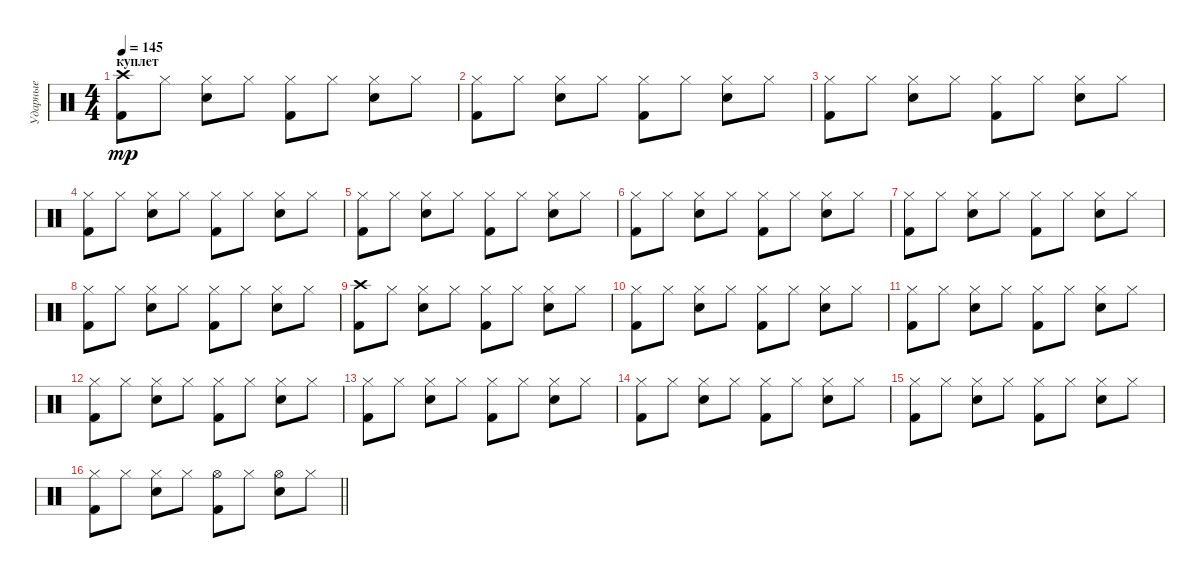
\track ("Ударные" "Ударные") {instrument percussion}
\staff {score}
\articulation defaults
\ts (4 4)
\section ("" "куплет")
\tempo 145
\clef neutral
\ks c
("Kick (hit) 2" "Crash high (hit)").8{dy mp} "Hi-Hat (closed)".8 ("Snare (hit) 2" "Hi-Hat (closed)").8 "Hi-Hat (closed)".8 ("Kick (hit) 2" "Hi-Hat (closed)").8 "Hi-Hat (closed)".8 ("Snare (hit) 2" "Hi-Hat (closed)").8 "Hi-Hat (closed)".8 |
("Kick (hit) 2" "Hi-Hat (closed)").8 "Hi-Hat (closed)".8 ("Snare (hit) 2" "Hi-Hat (closed)").8 "Hi-Hat (closed)".8 ("Kick (hit) 2" "Hi-Hat (closed)").8 "Hi-Hat (closed)".8 ("Snare (hit) 2" "Hi-Hat (closed)").8 "Hi-Hat (closed)".8 |
("Kick (hit) 2" "Hi-Hat (closed)").8 "Hi-Hat (closed)".8 ("Snare (hit) 2" "Hi-Hat (closed)").8 "Hi-Hat (closed)".8 ("Kick (hit) 2" "Hi-Hat (closed)").8 "Hi-Hat (closed)".8 ("Snare (hit) 2" "Hi-Hat (closed)").8 "Hi-Hat (closed)".8 |
("Kick (hit) 2" "Hi-Hat (closed)").8 "Hi-Hat (closed)".8 ("Snare (hit) 2" "Hi-Hat (closed)").8 "Hi-Hat (closed)".8 ("Kick (hit) 2" "Hi-Hat (closed)").8 "Hi-Hat (closed)".8 ("Snare (hit) 2" "Hi-Hat (closed)").8 "Hi-Hat (closed)".8 |
("Kick (hit) 2" "Hi-Hat (closed)").8 "Hi-Hat (closed)".8 ("Snare (hit) 2" "Hi-Hat (closed)").8 "Hi-Hat (closed)".8 ("Kick (hit) 2" "Hi-Hat (closed)").8 "Hi-Hat (closed)".8 ("Snare (hit) 2" "Hi-Hat (closed)").8 "Hi-Hat (closed)".8 |
("Kick (hit) 2" "Hi-Hat (closed)").8 "Hi-Hat (closed)".8 ("Snare (hit) 2" "Hi-Hat (closed)").8 "Hi-Hat (closed)".8 ("Kick (hit) 2" "Hi-Hat (closed)").8 "Hi-Hat (closed)".8 ("Snare (hit) 2" "Hi-Hat (closed)").8 "Hi-Hat (closed)".8 |
("Kick (hit) 2" "Hi-Hat (closed)").8 "Hi-Hat (closed)".8 ("Snare (hit) 2" "Hi-Hat (closed)").8 "Hi-Hat (closed)".8 ("Kick (hit) 2" "Hi-Hat (closed)").8 "Hi-Hat (closed)".8 ("Snare (hit) 2" "Hi-Hat (closed)").8 "Hi-Hat (closed)".8 |
("Kick (hit) 2" "Hi-Hat (closed)").8 "Hi-Hat (closed)".8 ("Snare (hit) 2" "Hi-Hat (closed)").8 "Hi-Hat (closed)".8 ("Kick (hit) 2" "Hi-Hat (closed)").8 "Hi-Hat (closed)".8 ("Snare (hit) 2" "Hi-Hat (closed)").8 "Hi-Hat (closed)".8 |
("Kick (hit) 2" "Crash high (hit)").8 "Hi-Hat (closed)".8 ("Snare (hit) 2" "Hi-Hat (closed)").8 "Hi-Hat (closed)".8 ("Kick (hit) 2" "Hi-Hat (closed)").8 "Hi-Hat (closed)".8 ("Snare (hit) 2" "Hi-Hat (closed)").8 "Hi-Hat (closed)".8 |
("Kick (hit) 2" "Hi-Hat (closed)").8 "Hi-Hat (closed)".8 ("Snare (hit) 2" "Hi-Hat (closed)").8 "Hi-Hat (closed)".8 ("Kick (hit) 2" "Hi-Hat (closed)").8 "Hi-Hat (closed)".8 ("Snare (hit) 2" "Hi-Hat (closed)").8 "Hi-Hat (closed)".8 |
("Kick (hit) 2" "Hi-Hat (closed)").8 "Hi-Hat (closed)".8 ("Snare (hit) 2" "Hi-Hat (closed)").8 "Hi-Hat (closed)".8 ("Kick (hit) 2" "Hi-Hat (closed)").8 "Hi-Hat (closed)".8 ("Snare (hit) 2" "Hi-Hat (closed)").8 "Hi-Hat (closed)".8 |
("Kick (hit) 2" "Hi-Hat (closed)").8 "Hi-Hat (closed)".8 ("Snare (hit) 2" "Hi-Hat (closed)").8 "Hi-Hat (closed)".8 ("Kick (hit) 2" "Hi-Hat (closed)").8 "Hi-Hat (closed)".8 ("Snare (hit) 2" "Hi-Hat (closed)").8 "Hi-Hat (closed)".8 |
("Kick (hit) 2" "Hi-Hat (closed)").8 "Hi-Hat (closed)".8 ("Snare (hit) 2" "Hi-Hat (closed)").8 "Hi-Hat (closed)".8 ("Kick (hit) 2" "Hi-Hat (closed)").8 "Hi-Hat (closed)".8 ("Snare (hit) 2" "Hi-Hat (closed)").8 "Hi-Hat (closed)".8 |
("Kick (hit) 2" "Hi-Hat (closed)").8 "Hi-Hat (closed)".8 ("Snare (hit) 2" "Hi-Hat (closed)").8 "Hi-Hat (closed)".8 ("Kick (hit) 2" "Hi-Hat (closed)").8 "Hi-Hat (closed)".8 ("Snare (hit) 2" "Hi-Hat (closed)").8 "Hi-Hat (closed)".8 |
("Kick (hit) 2" "Hi-Hat (closed)").8 "Hi-Hat (closed)".8 ("Snare (hit) 2" "Hi-Hat (closed)").8 "Hi-Hat (closed)".8 ("Kick (hit) 2" "Hi-Hat (closed)").8 "Hi-Hat (closed)".8 ("Snare (hit) 2" "Hi-Hat (closed)").8 "Hi-Hat (closed)".8 |
\barLineRight lightlight
("Kick (hit) 2" "Hi-Hat (closed)").8 "Hi-Hat (closed)".8 ("Snare (hit) 2" "Hi-Hat (closed)").8 "Hi-Hat (closed)".8 ("Kick (hit) 2" "Hi-Hat (open)").8 "Hi-Hat (closed)".8 ("Snare (hit) 2" "Hi-Hat (open)").8 "Hi-Hat (closed)".8
